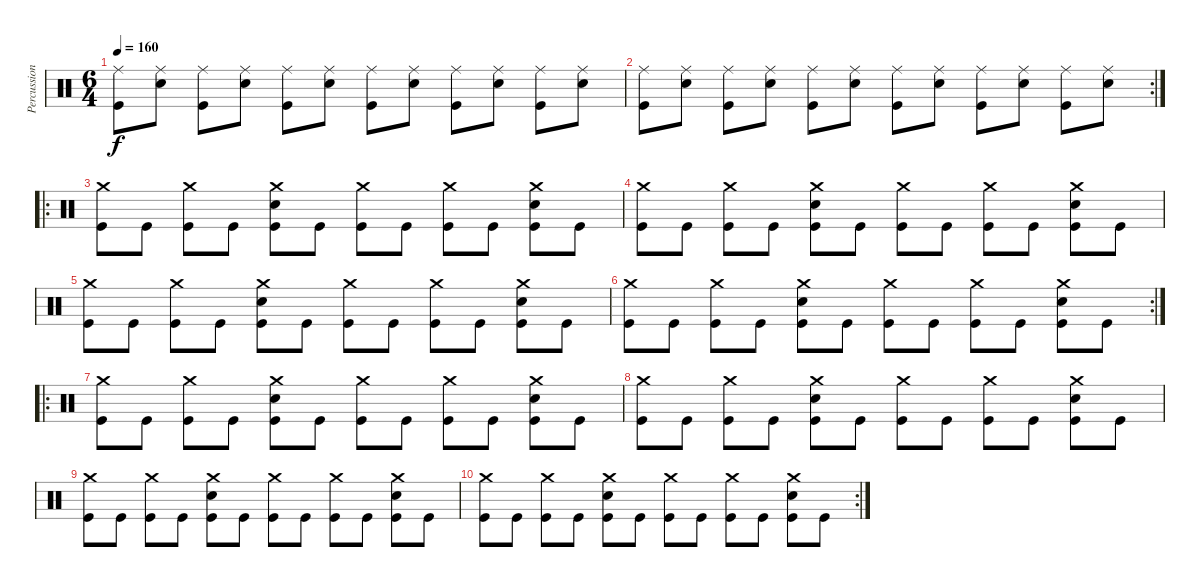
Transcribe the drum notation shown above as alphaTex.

\track ("Percussion" "Percussion") {instrument percussion}
\staff {score}
\articulation defaults
\ts (6 4)
\tempo 160
\clef neutral
\ks c
("Ride (middle)" "Kick (hit)").8{dy f} ("Ride (middle)" "Snare (hit) 2").8 ("Ride (middle)" "Kick (hit)").8 ("Ride (middle)" "Snare (hit) 2").8 ("Ride (middle)" "Kick (hit)").8 ("Ride (middle)" "Snare (hit) 2").8 ("Ride (middle)" "Kick (hit)").8 ("Ride (middle)" "Snare (hit) 2").8 ("Ride (middle)" "Kick (hit)").8 ("Ride (middle)" "Snare (hit) 2").8 ("Ride (middle)" "Kick (hit)").8 ("Ride (middle)" "Snare (hit) 2").8 |
\rc 2
("Ride (middle)" "Kick (hit)").8 ("Ride (middle)" "Snare (hit) 2").8 ("Ride (middle)" "Kick (hit)").8 ("Ride (middle)" "Snare (hit) 2").8 ("Ride (middle)" "Kick (hit)").8 ("Ride (middle)" "Snare (hit) 2").8 ("Ride (middle)" "Kick (hit)").8 ("Ride (middle)" "Snare (hit) 2").8 ("Ride (middle)" "Kick (hit)").8 ("Ride (middle)" "Snare (hit) 2").8 ("Ride (middle)" "Kick (hit)").8 ("Ride (middle)" "Snare (hit) 2").8 |
\ro
("Crash medium (hit)" "Kick (hit)").8 "Kick (hit)".8 ("Crash medium (hit)" "Kick (hit)").8 "Kick (hit)".8 ("Crash medium (hit)" "Snare (hit) 2" "Kick (hit)").8 "Kick (hit)".8 ("Crash medium (hit)" "Kick (hit)").8 "Kick (hit)".8 ("Crash medium (hit)" "Kick (hit)").8 "Kick (hit)".8 ("Crash medium (hit)" "Snare (hit) 2" "Kick (hit)").8 "Kick (hit)".8 |
("Crash medium (hit)" "Kick (hit)").8 "Kick (hit)".8 ("Crash medium (hit)" "Kick (hit)").8 "Kick (hit)".8 ("Crash medium (hit)" "Snare (hit) 2" "Kick (hit)").8 "Kick (hit)".8 ("Crash medium (hit)" "Kick (hit)").8 "Kick (hit)".8 ("Crash medium (hit)" "Kick (hit)").8 "Kick (hit)".8 ("Crash medium (hit)" "Snare (hit) 2" "Kick (hit)").8 "Kick (hit)".8 |
("Crash medium (hit)" "Kick (hit)").8 "Kick (hit)".8 ("Crash medium (hit)" "Kick (hit)").8 "Kick (hit)".8 ("Crash medium (hit)" "Snare (hit) 2" "Kick (hit)").8 "Kick (hit)".8 ("Crash medium (hit)" "Kick (hit)").8 "Kick (hit)".8 ("Crash medium (hit)" "Kick (hit)").8 "Kick (hit)".8 ("Crash medium (hit)" "Snare (hit) 2" "Kick (hit)").8 "Kick (hit)".8 |
\rc 2
("Crash medium (hit)" "Kick (hit)").8 "Kick (hit)".8 ("Crash medium (hit)" "Kick (hit)").8 "Kick (hit)".8 ("Crash medium (hit)" "Snare (hit) 2" "Kick (hit)").8 "Kick (hit)".8 ("Crash medium (hit)" "Kick (hit)").8 "Kick (hit)".8 ("Crash medium (hit)" "Kick (hit)").8 "Kick (hit)".8 ("Crash medium (hit)" "Snare (hit) 2" "Kick (hit)").8 "Kick (hit)".8 |
\ro
("Crash medium (hit)" "Kick (hit)").8 "Kick (hit)".8 ("Crash medium (hit)" "Kick (hit)").8 "Kick (hit)".8 ("Crash medium (hit)" "Snare (hit) 2" "Kick (hit)").8 "Kick (hit)".8 ("Crash medium (hit)" "Kick (hit)").8 "Kick (hit)".8 ("Crash medium (hit)" "Kick (hit)").8 "Kick (hit)".8 ("Crash medium (hit)" "Snare (hit) 2" "Kick (hit)").8 "Kick (hit)".8 |
("Crash medium (hit)" "Kick (hit)").8 "Kick (hit)".8 ("Crash medium (hit)" "Kick (hit)").8 "Kick (hit)".8 ("Crash medium (hit)" "Snare (hit) 2" "Kick (hit)").8 "Kick (hit)".8 ("Crash medium (hit)" "Kick (hit)").8 "Kick (hit)".8 ("Crash medium (hit)" "Kick (hit)").8 "Kick (hit)".8 ("Crash medium (hit)" "Snare (hit) 2" "Kick (hit)").8 "Kick (hit)".8 |
("Crash medium (hit)" "Kick (hit)").8 "Kick (hit)".8 ("Crash medium (hit)" "Kick (hit)").8 "Kick (hit)".8 ("Crash medium (hit)" "Snare (hit) 2" "Kick (hit)").8 "Kick (hit)".8 ("Crash medium (hit)" "Kick (hit)").8 "Kick (hit)".8 ("Crash medium (hit)" "Kick (hit)").8 "Kick (hit)".8 ("Crash medium (hit)" "Snare (hit) 2" "Kick (hit)").8 "Kick (hit)".8 |
\rc 2
("Crash medium (hit)" "Kick (hit)").8 "Kick (hit)".8 ("Crash medium (hit)" "Kick (hit)").8 "Kick (hit)".8 ("Crash medium (hit)" "Snare (hit) 2" "Kick (hit)").8 "Kick (hit)".8 ("Crash medium (hit)" "Kick (hit)").8 "Kick (hit)".8 ("Crash medium (hit)" "Kick (hit)").8 "Kick (hit)".8 ("Crash medium (hit)" "Snare (hit) 2" "Kick (hit)").8 "Kick (hit)".8
